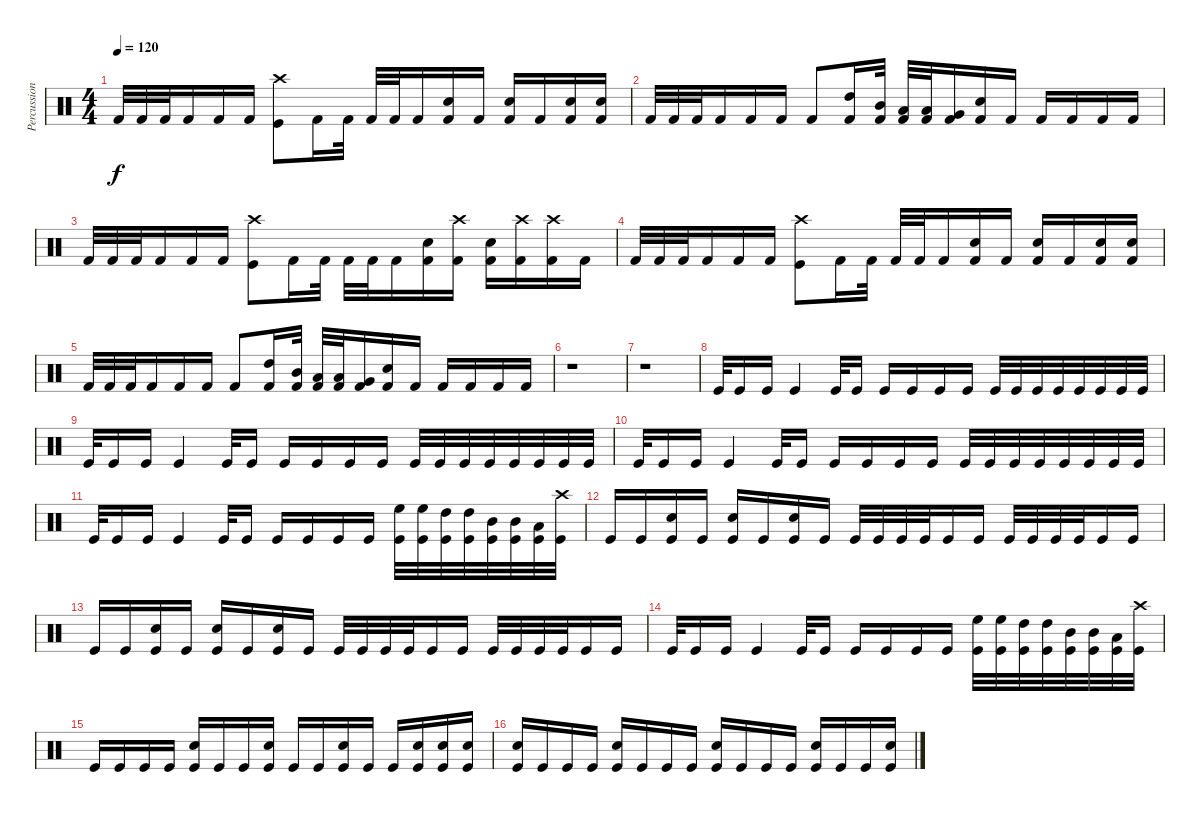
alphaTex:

\track ("Percussion" "Percussion") {instrument percussion}
\staff {score}
\articulation defaults
\ts (4 4)
\tempo 120
\clef neutral
\ks c "Kick (hit) 2".32{dy f} "Kick (hit) 2".32 "Kick (hit) 2".32 "Kick (hit) 2".16 "Kick (hit) 2".16 "Kick (hit) 2".16
("Crash high (hit)" "Kick (hit)").8 "Kick (hit) 2".16 "Kick (hit) 2".32 "Kick (hit) 2".32 "Kick (hit) 2".32 "Kick (hit) 2".16 ("Kick (hit) 2" "Snare (hit) 2").16 "Kick (hit) 2".16 ("Kick (hit) 2" "Snare (hit) 2").16 "Kick (hit) 2".16 ("Kick (hit) 2" "Snare (hit) 2").16 ("Kick (hit) 2" "Snare (hit) 2").16 |
"Kick (hit) 2".32 "Kick (hit) 2".32 "Kick (hit) 2".32 "Kick (hit) 2".16 "Kick (hit) 2".16 "Kick (hit) 2".16 "Kick (hit) 2".8 ("Kick (hit) 2" "High Tom (hit)").16 ("Kick (hit) 2" "Mid Tom (hit)").32 ("Kick (hit) 2" "Low Tom (hit)").32 ("Kick (hit) 2" "Low Tom (hit)").32 ("Kick (hit) 2" "Very Low Tom (hit)").16 ("Kick (hit) 2" "Snare (hit) 2").16 "Kick (hit) 2".16 "Kick (hit) 2".16 "Kick (hit) 2".16 "Kick (hit) 2".16 "Kick (hit) 2".16 |
"Kick (hit) 2".32 "Kick (hit) 2".32 "Kick (hit) 2".32 "Kick (hit) 2".16 "Kick (hit) 2".16 "Kick (hit) 2".16 ("Crash high (hit)" "Kick (hit)").8 "Kick (hit) 2".16 "Kick (hit) 2".32 "Kick (hit) 2".32 "Kick (hit) 2".32 "Kick (hit) 2".16 ("Kick (hit) 2" "Snare (hit) 2").16 ("Kick (hit) 2" "Crash high (hit)").16 ("Kick (hit) 2" "Snare (hit) 2").16 ("Kick (hit) 2" "Crash high (hit)").16 ("Kick (hit) 2" "Crash high (hit)").16 "Kick (hit) 2".16 |
"Kick (hit) 2".32 "Kick (hit) 2".32 "Kick (hit) 2".32 "Kick (hit) 2".16 "Kick (hit) 2".16 "Kick (hit) 2".16 ("Crash high (hit)" "Kick (hit)").8 "Kick (hit) 2".16 "Kick (hit) 2".32 "Kick (hit) 2".32 "Kick (hit) 2".32 "Kick (hit) 2".16 ("Kick (hit) 2" "Snare (hit) 2").16 "Kick (hit) 2".16 ("Kick (hit) 2" "Snare (hit) 2").16 "Kick (hit) 2".16 ("Kick (hit) 2" "Snare (hit) 2").16 ("Kick (hit) 2" "Snare (hit) 2").16 |
"Kick (hit) 2".32 "Kick (hit) 2".32 "Kick (hit) 2".32 "Kick (hit) 2".16 "Kick (hit) 2".16 "Kick (hit) 2".16 "Kick (hit) 2".8 ("Kick (hit) 2" "High Tom (hit)").16 ("Kick (hit) 2" "Mid Tom (hit)").32 ("Kick (hit) 2" "Low Tom (hit)").32 ("Kick (hit) 2" "Low Tom (hit)").32 ("Kick (hit) 2" "Very Low Tom (hit)").16 ("Kick (hit) 2" "Snare (hit) 2").16 "Kick (hit) 2".16 "Kick (hit) 2".16 "Kick (hit) 2".16 "Kick (hit) 2".16 "Kick (hit) 2".16 |
r.1 |
r.1 |
"Kick (hit)".32 "Kick (hit)".16 "Kick (hit)".16 "Kick (hit)".4 "Kick (hit)".32 "Kick (hit)".16 "Kick (hit)".16 "Kick (hit)".16 "Kick (hit)".16 "Kick (hit)".16 "Kick (hit)".32 "Kick (hit)".32 "Kick (hit)".32 "Kick (hit)".32 "Kick (hit)".32 "Kick (hit)".32 "Kick (hit)".32 "Kick (hit)".32 |
"Kick (hit)".32 "Kick (hit)".16 "Kick (hit)".16 "Kick (hit)".4 "Kick (hit)".32 "Kick (hit)".16 "Kick (hit)".16 "Kick (hit)".16 "Kick (hit)".16 "Kick (hit)".16 "Kick (hit)".32 "Kick (hit)".32 "Kick (hit)".32 "Kick (hit)".32 "Kick (hit)".32 "Kick (hit)".32 "Kick (hit)".32 "Kick (hit)".32 |
"Kick (hit)".32 "Kick (hit)".16 "Kick (hit)".16 "Kick (hit)".4 "Kick (hit)".32 "Kick (hit)".16 "Kick (hit)".16 "Kick (hit)".16 "Kick (hit)".16 "Kick (hit)".16 "Kick (hit)".32 "Kick (hit)".32 "Kick (hit)".32 "Kick (hit)".32 "Kick (hit)".32 "Kick (hit)".32 "Kick (hit)".32 "Kick (hit)".32 |
"Kick (hit)".32 "Kick (hit)".16 "Kick (hit)".16 "Kick (hit)".4 "Kick (hit)".32 "Kick (hit)".16 "Kick (hit)".16 "Kick (hit)".16 "Kick (hit)".16 "Kick (hit)".16 ("Kick (hit)" "High Floor Tom (hit)").32 ("Kick (hit)" "High Floor Tom (hit)").32 ("Kick (hit)" "High Tom (hit)").32 ("Kick (hit)" "High Tom (hit)").32 ("Kick (hit)" "Mid Tom (hit)").32 ("Kick (hit)" "Mid Tom (hit)").32 ("Kick (hit)" "Low Tom (hit)").32 ("Kick (hit)" "Crash high (hit)").32 |
"Kick (hit)".16 "Kick (hit)".16 ("Kick (hit)" "Snare (hit) 2").16 "Kick (hit)".16 ("Kick (hit)" "Snare (hit) 2").16 "Kick (hit)".16 ("Kick (hit)" "Snare (hit) 2").16 "Kick (hit)".16 "Kick (hit)".32 "Kick (hit)".32 "Kick (hit)".32 "Kick (hit)".32 "Kick (hit)".16 "Kick (hit)".16 "Kick (hit)".32 "Kick (hit)".32 "Kick (hit)".32 "Kick (hit)".32 "Kick (hit)".16 "Kick (hit)".16 |
"Kick (hit)".16 "Kick (hit)".16 ("Kick (hit)" "Snare (hit) 2").16 "Kick (hit)".16 ("Kick (hit)" "Snare (hit) 2").16 "Kick (hit)".16 ("Kick (hit)" "Snare (hit) 2").16 "Kick (hit)".16 "Kick (hit)".32 "Kick (hit)".32 "Kick (hit)".32 "Kick (hit)".32 "Kick (hit)".16 "Kick (hit)".16 "Kick (hit)".32 "Kick (hit)".32 "Kick (hit)".32 "Kick (hit)".32 "Kick (hit)".16 "Kick (hit)".16 |
"Kick (hit)".32 "Kick (hit)".16 "Kick (hit)".16 "Kick (hit)".4 "Kick (hit)".32 "Kick (hit)".16 "Kick (hit)".16 "Kick (hit)".16 "Kick (hit)".16 "Kick (hit)".16 ("Kick (hit)" "High Floor Tom (hit)").32 ("Kick (hit)" "High Floor Tom (hit)").32 ("Kick (hit)" "High Tom (hit)").32 ("Kick (hit)" "High Tom (hit)").32 ("Kick (hit)" "Mid Tom (hit)").32 ("Kick (hit)" "Mid Tom (hit)").32 ("Kick (hit)" "Low Tom (hit)").32 ("Kick (hit)" "Crash high (hit)").32 |
"Kick (hit)".16 "Kick (hit)".16 "Kick (hit)".16 "Kick (hit)".16 ("Kick (hit)" "Snare (hit) 2").16 "Kick (hit)".16 "Kick (hit)".16 ("Kick (hit)" "Snare (hit) 2").16 "Kick (hit)".16 "Kick (hit)".16 ("Kick (hit)" "Snare (hit) 2").16 "Kick (hit)".16 "Kick (hit)".16 ("Kick (hit)" "Snare (hit) 2").16 ("Kick (hit)" "Snare (hit) 2").16 ("Kick (hit)" "Snare (hit) 2").16 |
("Kick (hit)" "Snare (hit) 2").16 "Kick (hit)".16 "Kick (hit)".16 "Kick (hit)".16 ("Kick (hit)" "Snare (hit) 2").16 "Kick (hit)".16 "Kick (hit)".16 "Kick (hit)".16 ("Kick (hit)" "Snare (hit) 2").16 "Kick (hit)".16 "Kick (hit)".16 "Kick (hit)".16 ("Kick (hit)" "Snare (hit) 2").16 "Kick (hit)".16 "Kick (hit)".16 ("Kick (hit)" "Snare (hit) 2").16
